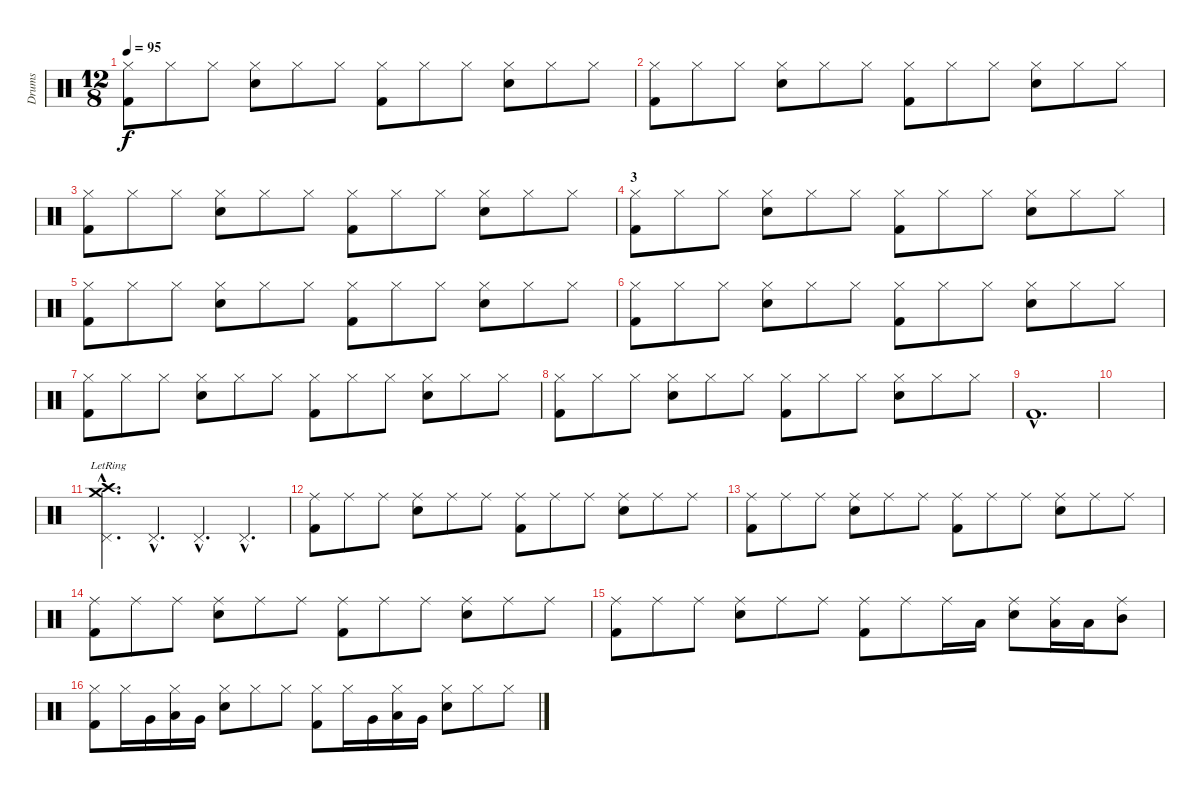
\track ("Drums" "Drums") {instrument percussion}
\staff {score}
\articulation defaults
\ts (12 8)
\tempo 95
\clef neutral
\ks c
("Kick (hit) 2" "Hi-Hat (closed)").8{dy f} "Hi-Hat (closed)".8 "Hi-Hat (closed)".8 ("Snare (hit) 2" "Hi-Hat (closed)").8 "Hi-Hat (closed)".8 "Hi-Hat (closed)".8 ("Kick (hit) 2" "Hi-Hat (closed)").8 "Hi-Hat (closed)".8 "Hi-Hat (closed)".8 ("Snare (hit) 2" "Hi-Hat (closed)").8 "Hi-Hat (closed)".8 "Hi-Hat (closed)".8 |
("Kick (hit) 2" "Hi-Hat (closed)").8 "Hi-Hat (closed)".8 "Hi-Hat (closed)".8 ("Snare (hit) 2" "Hi-Hat (closed)").8 "Hi-Hat (closed)".8 "Hi-Hat (closed)".8 ("Kick (hit) 2" "Hi-Hat (closed)").8 "Hi-Hat (closed)".8 "Hi-Hat (closed)".8 ("Snare (hit) 2" "Hi-Hat (closed)").8 "Hi-Hat (closed)".8 "Hi-Hat (closed)".8 |
("Kick (hit) 2" "Hi-Hat (closed)").8 "Hi-Hat (closed)".8 "Hi-Hat (closed)".8 ("Snare (hit) 2" "Hi-Hat (closed)").8 "Hi-Hat (closed)".8 "Hi-Hat (closed)".8 ("Kick (hit) 2" "Hi-Hat (closed)").8 "Hi-Hat (closed)".8 "Hi-Hat (closed)".8 ("Snare (hit) 2" "Hi-Hat (closed)").8 "Hi-Hat (closed)".8 "Hi-Hat (closed)".8 |
\section ("" "3")
("Kick (hit) 2" "Hi-Hat (closed)").8 "Hi-Hat (closed)".8 "Hi-Hat (closed)".8 ("Snare (hit) 2" "Hi-Hat (closed)").8 "Hi-Hat (closed)".8 "Hi-Hat (closed)".8 ("Kick (hit) 2" "Hi-Hat (closed)").8 "Hi-Hat (closed)".8 "Hi-Hat (closed)".8 ("Snare (hit) 2" "Hi-Hat (closed)").8 "Hi-Hat (closed)".8 "Hi-Hat (closed)".8 |
("Kick (hit) 2" "Hi-Hat (closed)").8 "Hi-Hat (closed)".8 "Hi-Hat (closed)".8 ("Snare (hit) 2" "Hi-Hat (closed)").8 "Hi-Hat (closed)".8 "Hi-Hat (closed)".8 ("Kick (hit) 2" "Hi-Hat (closed)").8 "Hi-Hat (closed)".8 "Hi-Hat (closed)".8 ("Snare (hit) 2" "Hi-Hat (closed)").8 "Hi-Hat (closed)".8 "Hi-Hat (closed)".8 |
("Kick (hit) 2" "Hi-Hat (closed)").8 "Hi-Hat (closed)".8 "Hi-Hat (closed)".8 ("Snare (hit) 2" "Hi-Hat (closed)").8 "Hi-Hat (closed)".8 "Hi-Hat (closed)".8 ("Kick (hit) 2" "Hi-Hat (closed)").8 "Hi-Hat (closed)".8 "Hi-Hat (closed)".8 ("Snare (hit) 2" "Hi-Hat (closed)").8 "Hi-Hat (closed)".8 "Hi-Hat (closed)".8 |
("Kick (hit) 2" "Hi-Hat (closed)").8 "Hi-Hat (closed)".8 "Hi-Hat (closed)".8 ("Snare (hit) 2" "Hi-Hat (closed)").8 "Hi-Hat (closed)".8 "Hi-Hat (closed)".8 ("Kick (hit) 2" "Hi-Hat (closed)").8 "Hi-Hat (closed)".8 "Hi-Hat (closed)".8 ("Snare (hit) 2" "Hi-Hat (closed)").8 "Hi-Hat (closed)".8 "Hi-Hat (closed)".8 |
("Kick (hit) 2" "Hi-Hat (closed)").8 "Hi-Hat (closed)".8 "Hi-Hat (closed)".8 ("Snare (hit) 2" "Hi-Hat (closed)").8 "Hi-Hat (closed)".8 "Hi-Hat (closed)".8 ("Kick (hit) 2" "Hi-Hat (closed)").8 "Hi-Hat (closed)".8 "Hi-Hat (closed)".8 ("Snare (hit) 2" "Hi-Hat (closed)").8 "Hi-Hat (closed)".8 "Hi-Hat (closed)".8 |
"Kick (hit) 2"{hac}.1{d} |
|
("Pedal Hi-Hat (hit)"{hac} "Crash medium (hit)"{hac lr} "Crash high (hit)"{hac lr}).4{d} "Pedal Hi-Hat (hit)"{hac}.4{d} "Pedal Hi-Hat (hit)"{hac}.4{d} "Pedal Hi-Hat (hit)"{hac}.4{d} |
("Kick (hit) 2" "Ride (middle)").8 "Ride (middle)".8 "Ride (middle)".8 ("Snare (hit) 2" "Ride (middle)").8 "Ride (middle)".8 "Ride (middle)".8 ("Kick (hit) 2" "Ride (middle)").8 "Ride (middle)".8 "Ride (middle)".8 ("Snare (hit) 2" "Ride (middle)").8 "Ride (middle)".8 "Ride (middle)".8 |
("Kick (hit) 2" "Ride (middle)").8 "Ride (middle)".8 "Ride (middle)".8 ("Snare (hit) 2" "Ride (middle)").8 "Ride (middle)".8 "Ride (middle)".8 ("Kick (hit) 2" "Ride (middle)").8 "Ride (middle)".8 "Ride (middle)".8 ("Snare (hit) 2" "Ride (middle)").8 "Ride (middle)".8 "Ride (middle)".8 |
("Kick (hit) 2" "Ride (middle)").8 "Ride (middle)".8 "Ride (middle)".8 ("Snare (hit) 2" "Ride (middle)").8 "Ride (middle)".8 "Ride (middle)".8 ("Kick (hit) 2" "Ride (middle)").8 "Ride (middle)".8 "Ride (middle)".8 ("Snare (hit) 2" "Ride (middle)").8 "Ride (middle)".8 "Ride (middle)".8 |
("Kick (hit) 2" "Ride (middle)").8 "Ride (middle)".8 "Ride (middle)".8 ("Snare (hit) 2" "Ride (middle)").8 "Ride (middle)".8 "Ride (middle)".8 ("Kick (hit) 2" "Ride (middle)").8 "Ride (middle)".8 "Ride (middle)".16 "Low Tom (hit)".16 ("Snare (hit) 2" "Ride (middle)").8 ("Ride (middle)" "Low Tom (hit)").16 "Low Tom (hit)".16 ("Ride (middle)" "Mid Tom (hit)").8 |
("Kick (hit) 2" "Hi-Hat (closed)").8 "Hi-Hat (closed)".16 "Very Low Tom (hit)".16 ("Hi-Hat (closed)" "Low Tom (hit)").16 "Very Low Tom (hit)".16 ("Snare (hit) 2" "Hi-Hat (closed)").8 "Hi-Hat (closed)".8 "Hi-Hat (closed)".8 ("Kick (hit) 2" "Hi-Hat (closed)").8 "Hi-Hat (closed)".16 "Very Low Tom (hit)".16 ("Hi-Hat (closed)" "Low Tom (hit)").16 "Very Low Tom (hit)".16 ("Snare (hit) 2" "Hi-Hat (closed)").8 "Hi-Hat (closed)".8 "Hi-Hat (closed)".8
